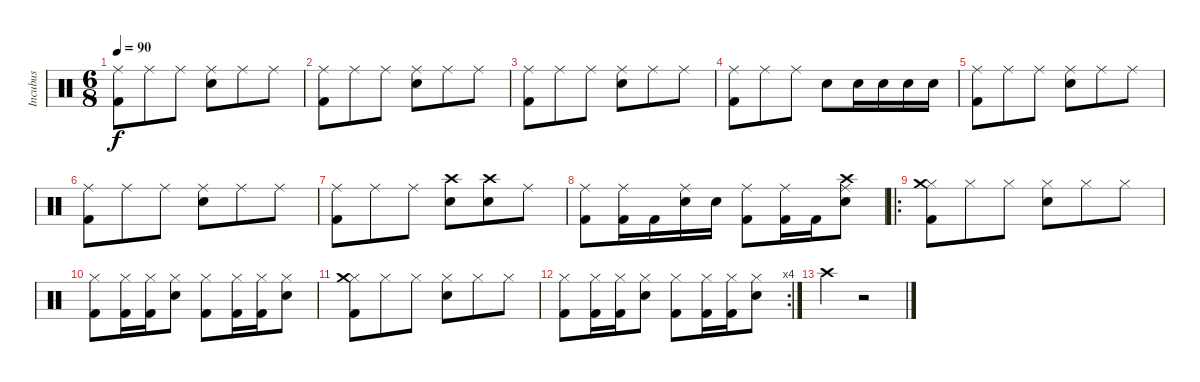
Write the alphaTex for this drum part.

\track ("Incubus" "Incubus") {instrument percussion}
\staff {score}
\articulation defaults
\ts (6 8)
\tempo 90
\clef neutral
\ks c
("Ride (middle)" "Kick (hit) 2").8{dy f} "Ride (middle)".8 "Ride (middle)".8 ("Ride (middle)" "Electric Snare (hit)").8 "Ride (middle)".8 "Ride (middle)".8 |
("Ride (middle)" "Kick (hit) 2").8 "Ride (middle)".8 "Ride (middle)".8 ("Ride (middle)" "Electric Snare (hit)").8 "Ride (middle)".8 "Ride (middle)".8 |
("Ride (middle)" "Kick (hit) 2").8 "Ride (middle)".8 "Ride (middle)".8 ("Ride (middle)" "Electric Snare (hit)").8 "Ride (middle)".8 "Ride (middle)".8 |
("Ride (middle)" "Kick (hit) 2").8 "Ride (middle)".8 "Ride (middle)".8 "Electric Snare (hit)".8 "Electric Snare (hit)".16 "Electric Snare (hit)".16 "Electric Snare (hit)".16 "Electric Snare (hit)".16 |
("Ride (middle)" "Kick (hit) 2").8 "Ride (middle)".8 "Ride (middle)".8 ("Ride (middle)" "Electric Snare (hit)").8 "Ride (middle)".8 "Ride (middle)".8 |
("Ride (middle)" "Kick (hit) 2").8 "Ride (middle)".8 "Ride (middle)".8 ("Ride (middle)" "Electric Snare (hit)").8 "Ride (middle)".8 "Ride (middle)".8 |
("Ride (middle)" "Kick (hit) 2").8 "Ride (middle)".8 "Ride (middle)".8 ("Crash high (hit)" "Electric Snare (hit)").8 ("Crash high (hit)" "Electric Snare (hit)").8 "Ride (middle)".8 |
("Ride (middle)" "Kick (hit) 2").8 ("Ride (middle)" "Kick (hit) 2").16 "Kick (hit) 2".16 ("Ride (middle)" "Electric Snare (hit)").16 "Electric Snare (hit)".16 ("Ride (middle)" "Kick (hit) 2").8 ("Ride (middle)" "Kick (hit) 2").16 "Kick (hit) 2".16 ("Ride (middle)" "Crash high (hit)" "Electric Snare (hit)").8 |
\ro
("Hi-Hat (closed)" "Crash medium (hit)" "Kick (hit) 2").8 "Hi-Hat (closed)".8 "Hi-Hat (closed)".8 ("Hi-Hat (closed)" "Electric Snare (hit)").8 "Hi-Hat (closed)".8 "Hi-Hat (closed)".8 |
("Hi-Hat (closed)" "Kick (hit) 2").8 ("Hi-Hat (closed)" "Kick (hit) 2").16 ("Hi-Hat (closed)" "Kick (hit) 2").16 ("Hi-Hat (closed)" "Electric Snare (hit)").8 ("Hi-Hat (closed)" "Kick (hit) 2").8 ("Hi-Hat (closed)" "Kick (hit) 2").16 ("Hi-Hat (closed)" "Kick (hit) 2").16 ("Hi-Hat (closed)" "Electric Snare (hit)").8 |
("Hi-Hat (closed)" "Crash medium (hit)" "Kick (hit) 2").8 "Hi-Hat (closed)".8 "Hi-Hat (closed)".8 ("Hi-Hat (closed)" "Electric Snare (hit)").8 "Hi-Hat (closed)".8 "Hi-Hat (closed)".8 |
\rc 4
("Hi-Hat (closed)" "Kick (hit) 2").8 ("Hi-Hat (closed)" "Kick (hit) 2").16 ("Hi-Hat (closed)" "Kick (hit) 2").16 ("Hi-Hat (closed)" "Electric Snare (hit)").8 ("Hi-Hat (closed)" "Kick (hit) 2").8 ("Hi-Hat (closed)" "Kick (hit) 2").16 ("Hi-Hat (closed)" "Kick (hit) 2").16 ("Hi-Hat (closed)" "Electric Snare (hit)").8 |
"Crash high (hit)".4 r.2
